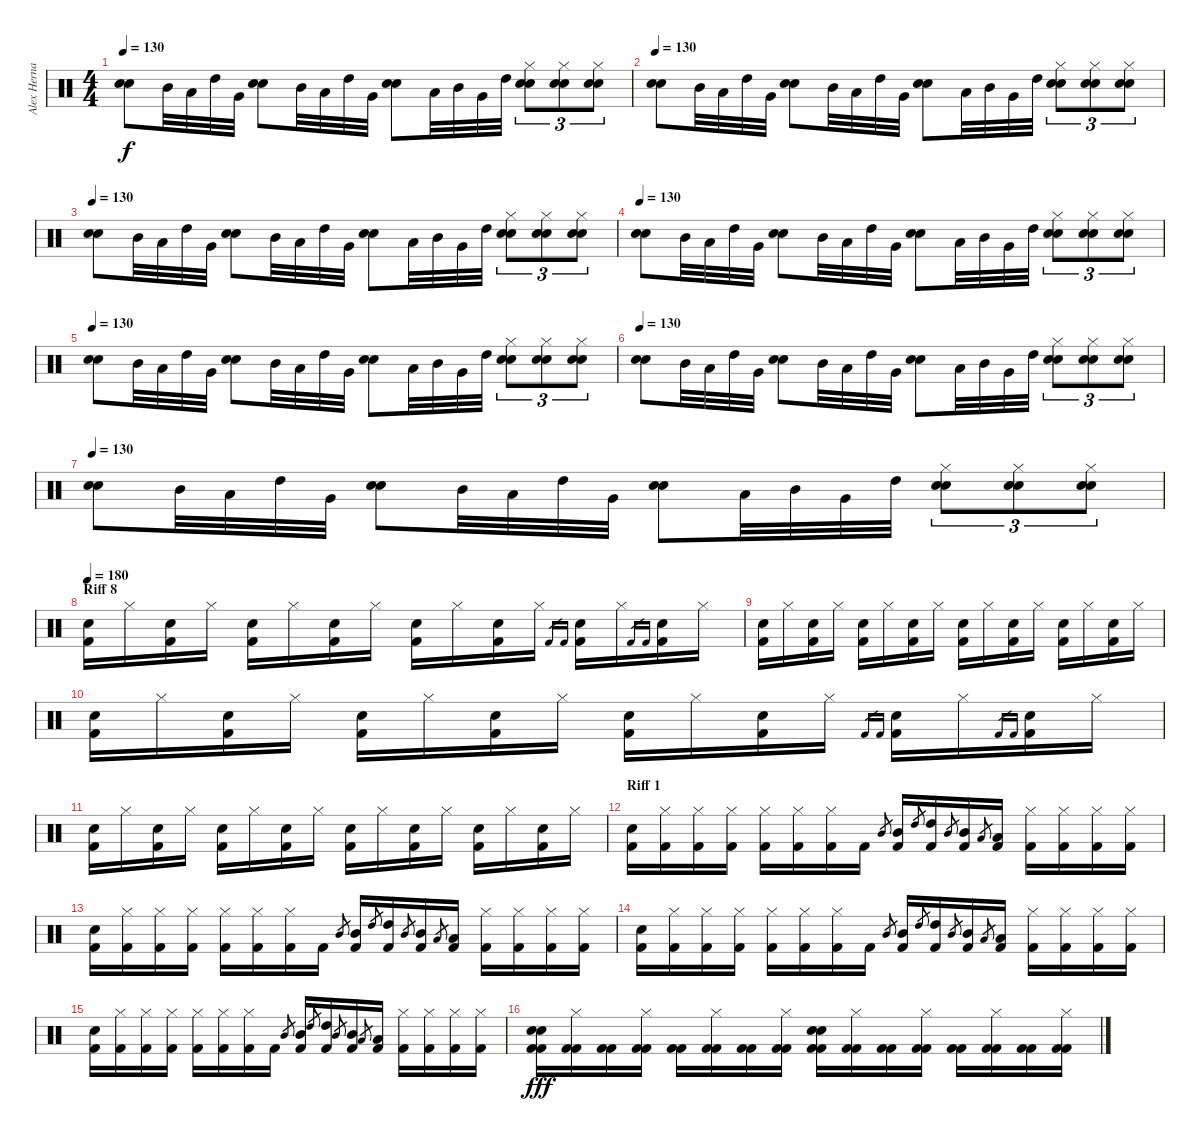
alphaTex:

\track ("Alex Hernandez" "Alex Herna") {instrument percussion}
\staff {score}
\articulation defaults
\ts (4 4)
\tempo 130
\clef neutral
\ks c
("Snare (hit) 2" "Snare (hit) 2").8{dy f} "Mid Tom (hit)".32 "Low Tom (hit)".32 "High Tom (hit)".32 "Very Low Tom (hit)".32 ("Snare (hit) 2" "Snare (hit) 2").8 "Mid Tom (hit)".32 "Low Tom (hit)".32 "High Tom (hit)".32 "Very Low Tom (hit)".32 ("Snare (hit) 2" "Snare (hit) 2").8 "Low Tom (hit)".32 "Mid Tom (hit)".32 "Very Low Tom (hit)".32 "High Tom (hit)".32 ("Hi-Hat (closed)" "Snare (hit) 2" "Snare (hit) 2").8{tu (3 2)} ("Hi-Hat (closed)" "Snare (hit) 2" "Snare (hit) 2").8{tu (3 2)} ("Hi-Hat (closed)" "Snare (hit) 2" "Snare (hit) 2").8{tu (3 2)} |
\tempo 130
("Snare (hit) 2" "Snare (hit) 2").8 "Mid Tom (hit)".32 "Low Tom (hit)".32 "High Tom (hit)".32 "Very Low Tom (hit)".32 ("Snare (hit) 2" "Snare (hit) 2").8 "Mid Tom (hit)".32 "Low Tom (hit)".32 "High Tom (hit)".32 "Very Low Tom (hit)".32 ("Snare (hit) 2" "Snare (hit) 2").8 "Low Tom (hit)".32 "Mid Tom (hit)".32 "Very Low Tom (hit)".32 "High Tom (hit)".32 ("Hi-Hat (closed)" "Snare (hit) 2" "Snare (hit) 2").8{tu (3 2)} ("Hi-Hat (closed)" "Snare (hit) 2" "Snare (hit) 2").8{tu (3 2)} ("Hi-Hat (closed)" "Snare (hit) 2" "Snare (hit) 2").8{tu (3 2)} |
\tempo 130
("Snare (hit) 2" "Snare (hit) 2").8 "Mid Tom (hit)".32 "Low Tom (hit)".32 "High Tom (hit)".32 "Very Low Tom (hit)".32 ("Snare (hit) 2" "Snare (hit) 2").8 "Mid Tom (hit)".32 "Low Tom (hit)".32 "High Tom (hit)".32 "Very Low Tom (hit)".32 ("Snare (hit) 2" "Snare (hit) 2").8 "Low Tom (hit)".32 "Mid Tom (hit)".32 "Very Low Tom (hit)".32 "High Tom (hit)".32 ("Hi-Hat (closed)" "Snare (hit) 2" "Snare (hit) 2").8{tu (3 2)} ("Hi-Hat (closed)" "Snare (hit) 2" "Snare (hit) 2").8{tu (3 2)} ("Hi-Hat (closed)" "Snare (hit) 2" "Snare (hit) 2").8{tu (3 2)} |
\tempo 130
("Snare (hit) 2" "Snare (hit) 2").8 "Mid Tom (hit)".32 "Low Tom (hit)".32 "High Tom (hit)".32 "Very Low Tom (hit)".32 ("Snare (hit) 2" "Snare (hit) 2").8 "Mid Tom (hit)".32 "Low Tom (hit)".32 "High Tom (hit)".32 "Very Low Tom (hit)".32 ("Snare (hit) 2" "Snare (hit) 2").8 "Low Tom (hit)".32 "Mid Tom (hit)".32 "Very Low Tom (hit)".32 "High Tom (hit)".32 ("Hi-Hat (closed)" "Snare (hit) 2" "Snare (hit) 2").8{tu (3 2)} ("Hi-Hat (closed)" "Snare (hit) 2" "Snare (hit) 2").8{tu (3 2)} ("Hi-Hat (closed)" "Snare (hit) 2" "Snare (hit) 2").8{tu (3 2)} |
\tempo 130
("Snare (hit) 2" "Snare (hit) 2").8 "Mid Tom (hit)".32 "Low Tom (hit)".32 "High Tom (hit)".32 "Very Low Tom (hit)".32 ("Snare (hit) 2" "Snare (hit) 2").8 "Mid Tom (hit)".32 "Low Tom (hit)".32 "High Tom (hit)".32 "Very Low Tom (hit)".32 ("Snare (hit) 2" "Snare (hit) 2").8 "Low Tom (hit)".32 "Mid Tom (hit)".32 "Very Low Tom (hit)".32 "High Tom (hit)".32 ("Hi-Hat (closed)" "Snare (hit) 2" "Snare (hit) 2").8{tu (3 2)} ("Hi-Hat (closed)" "Snare (hit) 2" "Snare (hit) 2").8{tu (3 2)} ("Hi-Hat (closed)" "Snare (hit) 2" "Snare (hit) 2").8{tu (3 2)} |
\tempo 130
("Snare (hit) 2" "Snare (hit) 2").8 "Mid Tom (hit)".32 "Low Tom (hit)".32 "High Tom (hit)".32 "Very Low Tom (hit)".32 ("Snare (hit) 2" "Snare (hit) 2").8 "Mid Tom (hit)".32 "Low Tom (hit)".32 "High Tom (hit)".32 "Very Low Tom (hit)".32 ("Snare (hit) 2" "Snare (hit) 2").8 "Low Tom (hit)".32 "Mid Tom (hit)".32 "Very Low Tom (hit)".32 "High Tom (hit)".32 ("Hi-Hat (closed)" "Snare (hit) 2" "Snare (hit) 2").8{tu (3 2)} ("Hi-Hat (closed)" "Snare (hit) 2" "Snare (hit) 2").8{tu (3 2)} ("Hi-Hat (closed)" "Snare (hit) 2" "Snare (hit) 2").8{tu (3 2)} |
\tempo 130
("Snare (hit) 2" "Snare (hit) 2").8 "Mid Tom (hit)".32 "Low Tom (hit)".32 "High Tom (hit)".32 "Very Low Tom (hit)".32 ("Snare (hit) 2" "Snare (hit) 2").8 "Mid Tom (hit)".32 "Low Tom (hit)".32 "High Tom (hit)".32 "Very Low Tom (hit)".32 ("Snare (hit) 2" "Snare (hit) 2").8 "Low Tom (hit)".32 "Mid Tom (hit)".32 "Very Low Tom (hit)".32 "High Tom (hit)".32 ("Hi-Hat (closed)" "Snare (hit) 2" "Snare (hit) 2").8{tu (3 2)} ("Hi-Hat (closed)" "Snare (hit) 2" "Snare (hit) 2").8{tu (3 2)} ("Hi-Hat (closed)" "Snare (hit) 2" "Snare (hit) 2").8{tu (3 2)} |
\section ("" "Riff 8")
\tempo 180
("Electric Snare (hit)" "Kick (hit) 2").16 "Hi-Hat (closed)".16 ("Electric Snare (hit)" "Kick (hit) 2").16 "Hi-Hat (closed)".16 ("Electric Snare (hit)" "Kick (hit) 2").16 "Hi-Hat (closed)".16 ("Electric Snare (hit)" "Kick (hit) 2").16 "Hi-Hat (closed)".16 ("Electric Snare (hit)" "Kick (hit) 2").16 "Hi-Hat (closed)".16 ("Electric Snare (hit)" "Kick (hit) 2").16 "Hi-Hat (closed)".16 "Kick (hit) 2".16{gr} "Kick (hit) 2".16{gr} ("Electric Snare (hit)" "Kick (hit) 2").16 "Hi-Hat (closed)".16 "Kick (hit) 2".16{gr} "Kick (hit) 2".16{gr} ("Electric Snare (hit)" "Kick (hit) 2").16 "Hi-Hat (closed)".16 |
("Electric Snare (hit)" "Kick (hit) 2").16 "Hi-Hat (closed)".16 ("Electric Snare (hit)" "Kick (hit) 2").16 "Hi-Hat (closed)".16 ("Electric Snare (hit)" "Kick (hit) 2").16 "Hi-Hat (closed)".16 ("Electric Snare (hit)" "Kick (hit) 2").16 "Hi-Hat (closed)".16 ("Electric Snare (hit)" "Kick (hit) 2").16 "Hi-Hat (closed)".16 ("Electric Snare (hit)" "Kick (hit) 2").16 "Hi-Hat (closed)".16 ("Electric Snare (hit)" "Kick (hit) 2").16 "Hi-Hat (closed)".16 ("Electric Snare (hit)" "Kick (hit) 2").16 "Hi-Hat (closed)".16 |
("Electric Snare (hit)" "Kick (hit) 2").16 "Hi-Hat (closed)".16 ("Electric Snare (hit)" "Kick (hit) 2").16 "Hi-Hat (closed)".16 ("Electric Snare (hit)" "Kick (hit) 2").16 "Hi-Hat (closed)".16 ("Electric Snare (hit)" "Kick (hit) 2").16 "Hi-Hat (closed)".16 ("Electric Snare (hit)" "Kick (hit) 2").16 "Hi-Hat (closed)".16 ("Electric Snare (hit)" "Kick (hit) 2").16 "Hi-Hat (closed)".16 "Kick (hit) 2".16{gr} "Kick (hit) 2".16{gr} ("Electric Snare (hit)" "Kick (hit) 2").16 "Hi-Hat (closed)".16 "Kick (hit) 2".16{gr} "Kick (hit) 2".16{gr} ("Electric Snare (hit)" "Kick (hit) 2").16 "Hi-Hat (closed)".16 |
("Electric Snare (hit)" "Kick (hit) 2").16 "Hi-Hat (closed)".16 ("Electric Snare (hit)" "Kick (hit) 2").16 "Hi-Hat (closed)".16 ("Electric Snare (hit)" "Kick (hit) 2").16 "Hi-Hat (closed)".16 ("Electric Snare (hit)" "Kick (hit) 2").16 "Hi-Hat (closed)".16 ("Electric Snare (hit)" "Kick (hit) 2").16 "Hi-Hat (closed)".16 ("Electric Snare (hit)" "Kick (hit) 2").16 "Hi-Hat (closed)".16 ("Electric Snare (hit)" "Kick (hit) 2").16 "Hi-Hat (closed)".16 ("Electric Snare (hit)" "Kick (hit) 2").16 "Hi-Hat (closed)".16 |
\section ("" "Riff 1")
("Snare (hit) 2" "Kick (hit) 2").16 ("Hi-Hat (closed)" "Kick (hit) 2").16 ("Hi-Hat (closed)" "Kick (hit) 2").16 ("Hi-Hat (closed)" "Kick (hit) 2").16 ("Hi-Hat (closed)" "Kick (hit) 2").16 ("Hi-Hat (closed)" "Kick (hit) 2").16 ("Hi-Hat (closed)" "Kick (hit) 2").16 "Kick (hit) 2".16 "Mid Tom (hit)".8{gr} ("Mid Tom (hit)" "Kick (hit) 2").16 "High Tom (hit)".8{gr} ("High Tom (hit)" "Kick (hit) 2").16 "Mid Tom (hit)".8{gr} ("Mid Tom (hit)" "Kick (hit) 2").16 "Low Tom (hit)".8{gr} ("Low Tom (hit)" "Kick (hit) 2").16 ("Hi-Hat (closed)" "Kick (hit) 2").16 ("Hi-Hat (closed)" "Kick (hit) 2").16 ("Hi-Hat (closed)" "Kick (hit) 2").16 ("Hi-Hat (closed)" "Kick (hit) 2").16 |
("Snare (hit) 2" "Kick (hit) 2").16 ("Hi-Hat (closed)" "Kick (hit) 2").16 ("Hi-Hat (closed)" "Kick (hit) 2").16 ("Hi-Hat (closed)" "Kick (hit) 2").16 ("Hi-Hat (closed)" "Kick (hit) 2").16 ("Hi-Hat (closed)" "Kick (hit) 2").16 ("Hi-Hat (closed)" "Kick (hit) 2").16 "Kick (hit) 2".16 "Mid Tom (hit)".8{gr} ("Mid Tom (hit)" "Kick (hit) 2").16 "High Tom (hit)".8{gr} ("High Tom (hit)" "Kick (hit) 2").16 "Mid Tom (hit)".8{gr} ("Mid Tom (hit)" "Kick (hit) 2").16 "Low Tom (hit)".8{gr} ("Low Tom (hit)" "Kick (hit) 2").16 ("Hi-Hat (closed)" "Kick (hit) 2").16 ("Hi-Hat (closed)" "Kick (hit) 2").16 ("Hi-Hat (closed)" "Kick (hit) 2").16 ("Hi-Hat (closed)" "Kick (hit) 2").16 |
("Snare (hit) 2" "Kick (hit) 2").16 ("Hi-Hat (closed)" "Kick (hit) 2").16 ("Hi-Hat (closed)" "Kick (hit) 2").16 ("Hi-Hat (closed)" "Kick (hit) 2").16 ("Hi-Hat (closed)" "Kick (hit) 2").16 ("Hi-Hat (closed)" "Kick (hit) 2").16 ("Hi-Hat (closed)" "Kick (hit) 2").16 "Kick (hit) 2".16 "Mid Tom (hit)".8{gr} ("Mid Tom (hit)" "Kick (hit) 2").16 "High Tom (hit)".8{gr} ("High Tom (hit)" "Kick (hit) 2").16 "Mid Tom (hit)".8{gr} ("Mid Tom (hit)" "Kick (hit) 2").16 "Low Tom (hit)".8{gr} ("Low Tom (hit)" "Kick (hit) 2").16 ("Hi-Hat (closed)" "Kick (hit) 2").16 ("Hi-Hat (closed)" "Kick (hit) 2").16 ("Hi-Hat (closed)" "Kick (hit) 2").16 ("Hi-Hat (closed)" "Kick (hit) 2").16 |
("Snare (hit) 2" "Kick (hit) 2").16 ("Hi-Hat (closed)" "Kick (hit) 2").16 ("Hi-Hat (closed)" "Kick (hit) 2").16 ("Hi-Hat (closed)" "Kick (hit) 2").16 ("Hi-Hat (closed)" "Kick (hit) 2").16 ("Hi-Hat (closed)" "Kick (hit) 2").16 ("Hi-Hat (closed)" "Kick (hit) 2").16 "Kick (hit) 2".16 "Mid Tom (hit)".8{gr} ("Mid Tom (hit)" "Kick (hit) 2").16 "High Tom (hit)".8{gr} ("High Tom (hit)" "Kick (hit) 2").16 "Mid Tom (hit)".8{gr} ("Mid Tom (hit)" "Kick (hit) 2").16 "Low Tom (hit)".8{gr} ("Low Tom (hit)" "Kick (hit) 2").16 ("Hi-Hat (closed)" "Kick (hit) 2").16 ("Hi-Hat (closed)" "Kick (hit) 2").16 ("Hi-Hat (closed)" "Kick (hit) 2").16 ("Hi-Hat (closed)" "Kick (hit) 2").16 |
("Snare (hit) 2" "Snare (hit) 2" "Kick (hit) 2" "Kick (hit) 2").16{dy fff} ("Hi-Hat (closed)" "Kick (hit) 2" "Kick (hit) 2").16 ("Kick (hit) 2" "Kick (hit) 2").16 ("Hi-Hat (closed)" "Kick (hit) 2" "Kick (hit) 2").16 ("Kick (hit) 2" "Kick (hit) 2").16 ("Hi-Hat (closed)" "Kick (hit) 2" "Kick (hit) 2").16 ("Kick (hit) 2" "Kick (hit) 2").16 ("Hi-Hat (closed)" "Kick (hit) 2" "Kick (hit) 2").16 ("Snare (hit) 2" "Snare (hit) 2" "Kick (hit) 2" "Kick (hit) 2").16 ("Hi-Hat (closed)" "Kick (hit) 2" "Kick (hit) 2").16 ("Kick (hit) 2" "Kick (hit) 2").16 ("Hi-Hat (closed)" "Kick (hit) 2" "Kick (hit) 2").16 ("Kick (hit) 2" "Kick (hit) 2").16 ("Hi-Hat (closed)" "Kick (hit) 2" "Kick (hit) 2").16 ("Kick (hit) 2" "Kick (hit) 2").16 ("Hi-Hat (closed)" "Kick (hit) 2" "Kick (hit) 2").16
